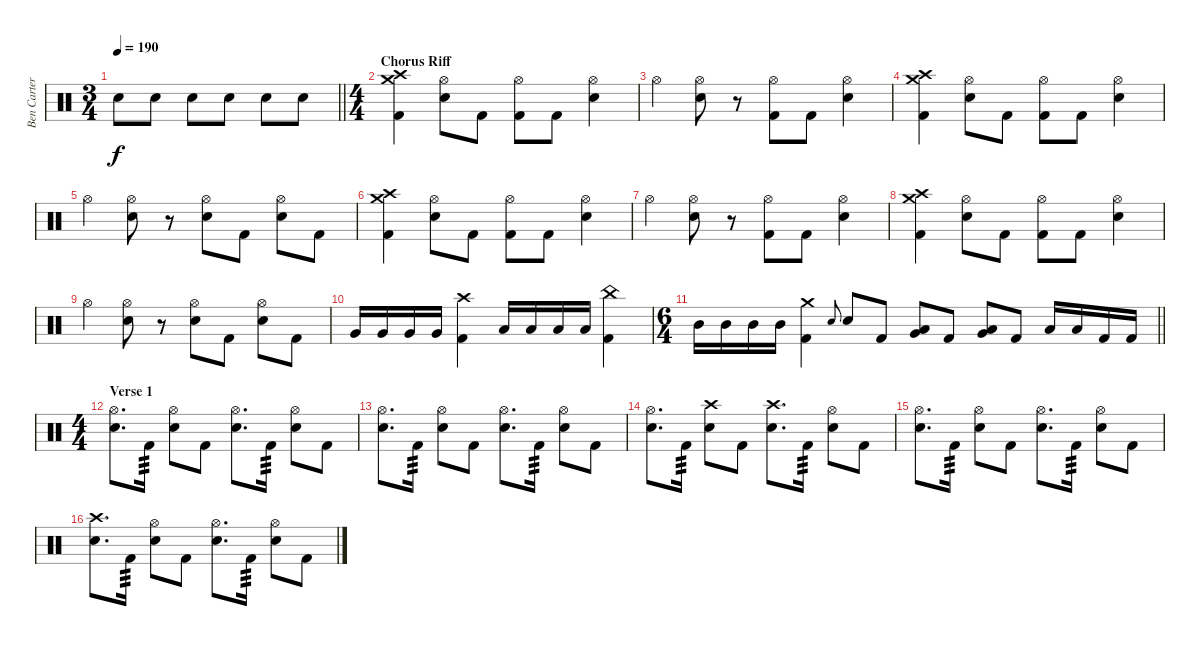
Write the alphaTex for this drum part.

\track ("Ben Carter" "Ben Carter") {instrument percussion}
\staff {score}
\articulation defaults
\ts (3 4)
\tempo 190
\clef neutral
\barLineRight lightlight
\ks c "Snare (hit) 2".8{dy f} "Snare (hit) 2".8 "Snare (hit) 2".8 "Snare (hit) 2".8 "Snare (hit) 2".8 "Snare (hit) 2".8
|
\ts (4 4)
\section ("" "Chorus Riff")
("Crash medium (hit)" "Crash high (hit)" "Kick (hit) 2").4 ("Hi-Hat (open)" "Snare (hit) 2").8 "Kick (hit) 2".8 ("Hi-Hat (open)" "Kick (hit) 2").8 "Kick (hit) 2".8 ("Hi-Hat (open)" "Snare (hit) 2").4 |
"Hi-Hat (open)".4 ("Hi-Hat (open)" "Snare (hit) 2").8 r.8 ("Hi-Hat (open)" "Kick (hit) 2").8 "Kick (hit) 2".8 ("Hi-Hat (open)" "Snare (hit) 2").4 |
("Crash medium (hit)" "Crash high (hit)" "Kick (hit) 2").4 ("Hi-Hat (open)" "Snare (hit) 2").8 "Kick (hit) 2".8 ("Hi-Hat (open)" "Kick (hit) 2").8 "Kick (hit) 2".8 ("Hi-Hat (open)" "Snare (hit) 2").4 |
"Hi-Hat (open)".4 ("Hi-Hat (open)" "Snare (hit) 2").8 r.8 ("Hi-Hat (open)" "Snare (hit) 2").8 "Kick (hit) 2".8 ("Hi-Hat (open)" "Snare (hit) 2").8 "Kick (hit) 2".8 |
("Crash medium (hit)" "Crash high (hit)" "Kick (hit) 2").4 ("Hi-Hat (open)" "Snare (hit) 2").8 "Kick (hit) 2".8 ("Hi-Hat (open)" "Kick (hit) 2").8 "Kick (hit) 2".8 ("Hi-Hat (open)" "Snare (hit) 2").4 |
"Hi-Hat (open)".4 ("Hi-Hat (open)" "Snare (hit) 2").8 r.8 ("Hi-Hat (open)" "Kick (hit) 2").8 "Kick (hit) 2".8 ("Hi-Hat (open)" "Snare (hit) 2").4 |
("Crash medium (hit)" "Crash high (hit)" "Kick (hit) 2").4 ("Hi-Hat (open)" "Snare (hit) 2").8 "Kick (hit) 2".8 ("Hi-Hat (open)" "Kick (hit) 2").8 "Kick (hit) 2".8 ("Hi-Hat (open)" "Snare (hit) 2").4 |
"Hi-Hat (open)".4 ("Hi-Hat (open)" "Snare (hit) 2").8 r.8 ("Hi-Hat (open)" "Snare (hit) 2").8 "Kick (hit) 2".8 ("Hi-Hat (open)" "Snare (hit) 2").8 "Kick (hit) 2".8 |
"Very Low Tom (hit)".16 "Very Low Tom (hit)".16 "Very Low Tom (hit)".16 "Very Low Tom (hit)".16 ("Crash high (hit)" "Kick (hit) 2").4 "Low Tom (hit)".16 "Low Tom (hit)".16 "Low Tom (hit)".16 "Low Tom (hit)".16 ("China (hit)" "Kick (hit) 2").4 |
\ts (6 4)
\barLineRight lightlight "Mid Tom (hit)".16 "Mid Tom (hit)".16 "Mid Tom (hit)".16 "Mid Tom (hit)".16
("Crash medium (hit)" "Kick (hit) 2").4 "Snare (hit) 2".8{gr onbeat} "Snare (hit) 2".8 "Kick (hit) 2".8 ("Very Low Tom (hit)" "Low Tom (hit)").8 "Kick (hit) 2".8 ("Very Low Tom (hit)" "Low Floor Tom (hit)").8 "Kick (hit) 2".8 "Low Floor Tom (hit)".16 "Low Floor Tom (hit)".16 "Kick (hit) 2".16 "Kick (hit) 2".16 |
\ts (4 4)
\section ("" "Verse 1")
("Hi-Hat (open)" "Snare (hit) 2").8{d} "Kick (hit) 2".16{tp 3} ("Hi-Hat (open)" "Snare (hit) 2").8 "Kick (hit) 2".8 ("Hi-Hat (open)" "Snare (hit) 2").8{d} "Kick (hit) 2".16{tp 3} ("Hi-Hat (open)" "Snare (hit) 2").8 "Kick (hit) 2".8 |
("Hi-Hat (open)" "Snare (hit) 2").8{d} "Kick (hit) 2".16{tp 3} ("Hi-Hat (open)" "Snare (hit) 2").8 "Kick (hit) 2".8 ("Hi-Hat (open)" "Snare (hit) 2").8{d} "Kick (hit) 2".16{tp 3} ("Hi-Hat (open)" "Snare (hit) 2").8 "Kick (hit) 2".8 |
("Hi-Hat (open)" "Snare (hit) 2").8{d} "Kick (hit) 2".16{tp 3} ("Crash high (hit)" "Snare (hit) 2").8 "Kick (hit) 2".8 ("Crash high (hit)" "Snare (hit) 2").8{d} "Kick (hit) 2".16{tp 3} ("Hi-Hat (open)" "Snare (hit) 2").8 "Kick (hit) 2".8 |
("Hi-Hat (open)" "Snare (hit) 2").8{d} "Kick (hit) 2".16{tp 3} ("Hi-Hat (open)" "Snare (hit) 2").8 "Kick (hit) 2".8 ("Hi-Hat (open)" "Snare (hit) 2").8{d} "Kick (hit) 2".16{tp 3} ("Hi-Hat (open)" "Snare (hit) 2").8 "Kick (hit) 2".8 |
("Crash high (hit)" "Snare (hit) 2").8{d} "Kick (hit) 2".16{tp 3} ("Hi-Hat (open)" "Snare (hit) 2").8 "Kick (hit) 2".8 ("Hi-Hat (open)" "Snare (hit) 2").8{d} "Kick (hit) 2".16{tp 3} ("Hi-Hat (open)" "Snare (hit) 2").8 "Kick (hit) 2".8
